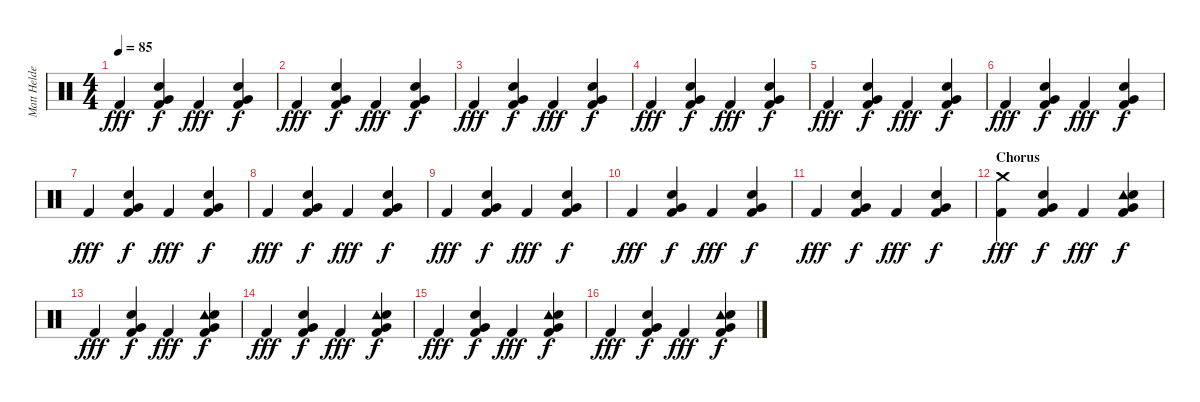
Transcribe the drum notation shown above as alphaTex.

\track ("Matt Helders - Drums" "Matt Helde") {instrument percussion}
\staff {score}
\articulation defaults
\ts (4 4)
\tempo 85
\clef neutral
\ks c "Kick (hit) 2".4{dy fff}
("Kick (hit) 2" "Very Low Tom (hit)" "Hand Clap (hit)").4{dy f} "Kick (hit) 2".4{dy fff} ("Kick (hit) 2" "Very Low Tom (hit)" "Hand Clap (hit)").4{dy f} |
"Kick (hit) 2".4{dy fff} ("Kick (hit) 2" "Very Low Tom (hit)" "Hand Clap (hit)").4{dy f} "Kick (hit) 2".4{dy fff} ("Kick (hit) 2" "Very Low Tom (hit)" "Hand Clap (hit)").4{dy f} |
"Kick (hit) 2".4{dy fff} ("Kick (hit) 2" "Very Low Tom (hit)" "Hand Clap (hit)").4{dy f} "Kick (hit) 2".4{dy fff} ("Kick (hit) 2" "Very Low Tom (hit)" "Hand Clap (hit)").4{dy f} |
"Kick (hit) 2".4{dy fff} ("Kick (hit) 2" "Very Low Tom (hit)" "Hand Clap (hit)").4{dy f} "Kick (hit) 2".4{dy fff} ("Kick (hit) 2" "Very Low Tom (hit)" "Hand Clap (hit)").4{dy f} |
"Kick (hit) 2".4{dy fff} ("Kick (hit) 2" "Very Low Tom (hit)" "Hand Clap (hit)").4{dy f} "Kick (hit) 2".4{dy fff} ("Kick (hit) 2" "Very Low Tom (hit)" "Hand Clap (hit)").4{dy f} |
"Kick (hit) 2".4{dy fff} ("Kick (hit) 2" "Very Low Tom (hit)" "Hand Clap (hit)").4{dy f} "Kick (hit) 2".4{dy fff} ("Kick (hit) 2" "Very Low Tom (hit)" "Hand Clap (hit)").4{dy f} |
"Kick (hit) 2".4{dy fff} ("Kick (hit) 2" "Very Low Tom (hit)" "Hand Clap (hit)").4{dy f} "Kick (hit) 2".4{dy fff} ("Kick (hit) 2" "Very Low Tom (hit)" "Hand Clap (hit)").4{dy f} |
"Kick (hit) 2".4{dy fff} ("Kick (hit) 2" "Very Low Tom (hit)" "Hand Clap (hit)").4{dy f} "Kick (hit) 2".4{dy fff} ("Kick (hit) 2" "Very Low Tom (hit)" "Hand Clap (hit)").4{dy f} |
"Kick (hit) 2".4{dy fff} ("Kick (hit) 2" "Very Low Tom (hit)" "Hand Clap (hit)").4{dy f} "Kick (hit) 2".4{dy fff} ("Kick (hit) 2" "Very Low Tom (hit)" "Hand Clap (hit)").4{dy f} |
"Kick (hit) 2".4{dy fff} ("Kick (hit) 2" "Very Low Tom (hit)" "Hand Clap (hit)").4{dy f} "Kick (hit) 2".4{dy fff} ("Kick (hit) 2" "Very Low Tom (hit)" "Hand Clap (hit)").4{dy f} |
"Kick (hit) 2".4{dy fff} ("Kick (hit) 2" "Very Low Tom (hit)" "Hand Clap (hit)").4{dy f} "Kick (hit) 2".4{dy fff} ("Kick (hit) 2" "Very Low Tom (hit)" "Hand Clap (hit)").4{dy f} |
\section ("" "Chorus")
("Crash medium (hit)" "Kick (hit) 2").4{dy fff} ("Kick (hit) 2" "Very Low Tom (hit)" "Hand Clap (hit)").4{dy f} "Kick (hit) 2".4{dy fff} ("Kick (hit) 2" "Very Low Tom (hit)" "Tambourine (hit)" "Hand Clap (hit)").4{dy f} |
"Kick (hit) 2".4{dy fff} ("Kick (hit) 2" "Very Low Tom (hit)" "Hand Clap (hit)").4{dy f} "Kick (hit) 2".4{dy fff} ("Kick (hit) 2" "Very Low Tom (hit)" "Tambourine (hit)" "Hand Clap (hit)").4{dy f} |
"Kick (hit) 2".4{dy fff} ("Kick (hit) 2" "Very Low Tom (hit)" "Hand Clap (hit)").4{dy f} "Kick (hit) 2".4{dy fff} ("Kick (hit) 2" "Very Low Tom (hit)" "Tambourine (hit)" "Hand Clap (hit)").4{dy f} |
"Kick (hit) 2".4{dy fff} ("Kick (hit) 2" "Very Low Tom (hit)" "Hand Clap (hit)").4{dy f} "Kick (hit) 2".4{dy fff} ("Kick (hit) 2" "Very Low Tom (hit)" "Tambourine (hit)" "Hand Clap (hit)").4{dy f} |
"Kick (hit) 2".4{dy fff} ("Kick (hit) 2" "Very Low Tom (hit)" "Hand Clap (hit)").4{dy f} "Kick (hit) 2".4{dy fff} ("Kick (hit) 2" "Very Low Tom (hit)" "Tambourine (hit)" "Hand Clap (hit)").4{dy f}
